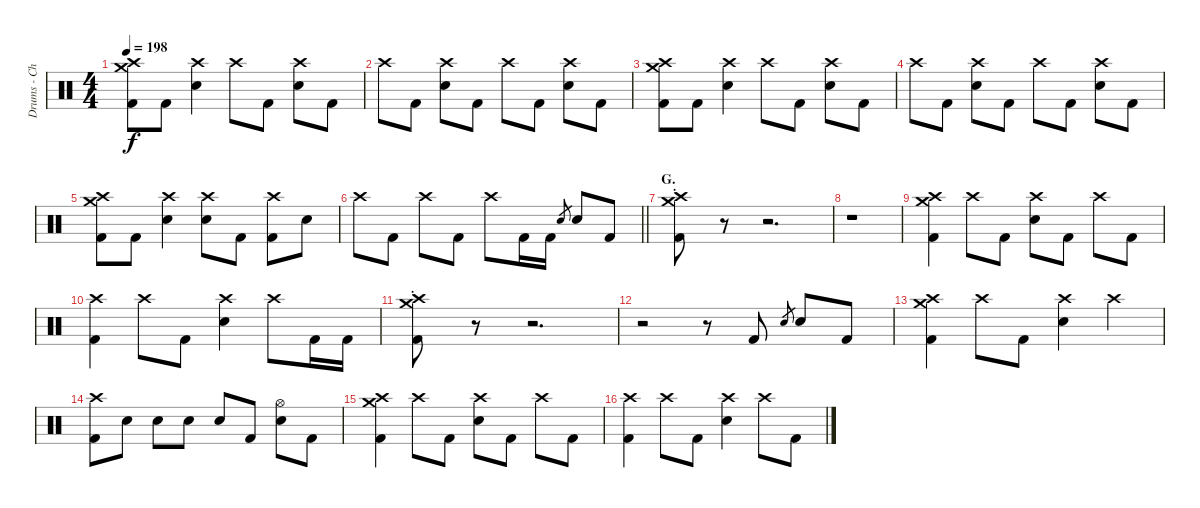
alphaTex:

\track ("Drums - Christopher Hornbrook" "Drums - Ch") {instrument percussion}
\staff {score}
\articulation defaults
\ts (4 4)
\tempo 198
\clef neutral
\ks c
("Crash medium (hit)" "Crash high (hit)" "Kick (hit) 2").8{dy f} "Kick (hit) 2".8 ("Crash high (hit)" "Electric Snare (hit)").4 "Crash high (hit)".8 "Kick (hit) 2".8 ("Crash high (hit)" "Electric Snare (hit)").8 "Kick (hit) 2".8 |
"Crash high (hit)".8 "Kick (hit) 2".8 ("Crash high (hit)" "Electric Snare (hit)").8 "Kick (hit) 2".8 "Crash high (hit)".8 "Kick (hit) 2".8 ("Crash high (hit)" "Electric Snare (hit)").8 "Kick (hit) 2".8 |
("Crash medium (hit)" "Crash high (hit)" "Kick (hit) 2").8 "Kick (hit) 2".8 ("Crash high (hit)" "Electric Snare (hit)").4 "Crash high (hit)".8 "Kick (hit) 2".8 ("Crash high (hit)" "Electric Snare (hit)").8 "Kick (hit) 2".8 |
"Crash high (hit)".8 "Kick (hit) 2".8 ("Crash high (hit)" "Electric Snare (hit)").8 "Kick (hit) 2".8 "Crash high (hit)".8 "Kick (hit) 2".8 ("Crash high (hit)" "Electric Snare (hit)").8 "Kick (hit) 2".8 |
("Crash medium (hit)" "Crash high (hit)" "Kick (hit) 2").8 "Kick (hit) 2".8 ("Crash high (hit)" "Electric Snare (hit)").4 ("Crash high (hit)" "Electric Snare (hit)").8 "Kick (hit) 2".8 ("Crash high (hit)" "Kick (hit) 2").8 "Electric Snare (hit)".8 |
\barLineRight lightlight "Crash high (hit)".8 "Kick (hit) 2".8 "Crash high (hit)".8 "Kick (hit) 2".8 "Crash high (hit)".8 "Kick (hit) 2".16 "Kick (hit) 2".16 "Electric Snare (hit)".8{gr} "Electric Snare (hit)".8 "Kick (hit) 2".8
|
\section ("" "G.")
("Crash medium (hit)"{st} "Crash high (hit)" "Kick (hit) 2").8 r.8{volume 0} r.2{d} |
r.1 |
("Crash medium (hit)" "Crash high (hit)" "Kick (hit) 2").4{volume 14} "Crash high (hit)".8 "Kick (hit) 2".8 ("Crash high (hit)" "Electric Snare (hit)").8 "Kick (hit) 2".8 "Crash high (hit)".8 "Kick (hit) 2".8 |
("Crash high (hit)" "Kick (hit) 2").4 "Crash high (hit)".8 "Kick (hit) 2".8 ("Crash high (hit)" "Electric Snare (hit)").4 "Crash high (hit)".8 "Kick (hit) 2".16 "Kick (hit) 2".16 |
("Crash medium (hit)"{st} "Crash high (hit)" "Kick (hit) 2").8 r.8{volume 0} r.2{d} |
r.2 r.8 "Kick (hit) 2".8{volume 14} "Electric Snare (hit)".8{gr} "Electric Snare (hit)".8 "Kick (hit) 2".8 |
("Crash medium (hit)" "Crash high (hit)" "Kick (hit) 2").4 "Crash high (hit)".8 "Kick (hit) 2".8 ("Crash high (hit)" "Electric Snare (hit)").4 "Crash high (hit)".4 |
("Crash high (hit)" "Kick (hit) 2").8 "Electric Snare (hit)".8 "Electric Snare (hit)".8 "Electric Snare (hit)".8 "Electric Snare (hit)".8 "Kick (hit) 2".8 ("Hi-Hat (open)" "Electric Snare (hit)").8 "Kick (hit) 2".8 |
("Crash medium (hit)" "Crash high (hit)" "Kick (hit) 2").4 "Crash high (hit)".8 "Kick (hit) 2".8 ("Crash high (hit)" "Electric Snare (hit)").8 "Kick (hit) 2".8 "Crash high (hit)".8 "Kick (hit) 2".8 |
("Crash high (hit)" "Kick (hit) 2").4 "Crash high (hit)".8 "Kick (hit) 2".8 ("Crash high (hit)" "Electric Snare (hit)").4 "Crash high (hit)".8 "Kick (hit) 2".8
